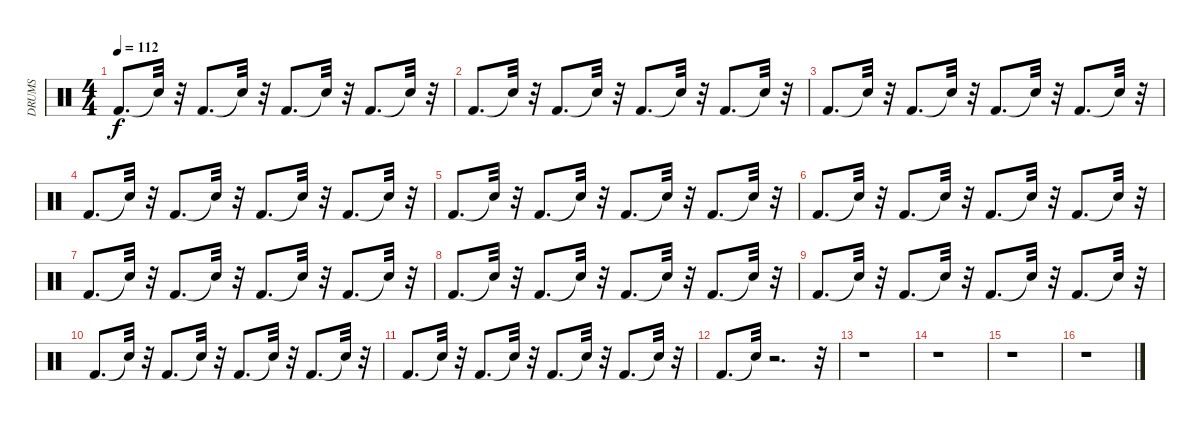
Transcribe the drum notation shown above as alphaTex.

\track ("DRUMS" "DRUMS") {instrument percussion}
\staff {score}
\articulation defaults
\ts (4 4)
\tempo 112
\clef neutral
\ks c "Kick (hit) 2".8{d dy f} "Snare (hit)"{t}.32
r.32 "Kick (hit) 2".8{d} "Snare (hit)"{t}.32 r.32 "Kick (hit) 2".8{d} "Snare (hit)"{t}.32 r.32 "Kick (hit) 2".8{d} "Snare (hit)"{t}.32 r.32 |
"Kick (hit) 2".8{d} "Snare (hit)"{t}.32 r.32 "Kick (hit) 2".8{d} "Snare (hit)"{t}.32 r.32 "Kick (hit) 2".8{d} "Snare (hit)"{t}.32 r.32 "Kick (hit) 2".8{d} "Snare (hit)"{t}.32 r.32 |
"Kick (hit) 2".8{d} "Snare (hit)"{t}.32 r.32 "Kick (hit) 2".8{d} "Snare (hit)"{t}.32 r.32 "Kick (hit) 2".8{d} "Snare (hit)"{t}.32 r.32 "Kick (hit) 2".8{d} "Snare (hit)"{t}.32 r.32 |
"Kick (hit) 2".8{d} "Snare (hit)"{t}.32 r.32 "Kick (hit) 2".8{d} "Snare (hit)"{t}.32 r.32 "Kick (hit) 2".8{d} "Snare (hit)"{t}.32 r.32 "Kick (hit) 2".8{d} "Snare (hit)"{t}.32 r.32 |
"Kick (hit) 2".8{d} "Snare (hit)"{t}.32 r.32 "Kick (hit) 2".8{d} "Snare (hit)"{t}.32 r.32 "Kick (hit) 2".8{d} "Snare (hit)"{t}.32 r.32 "Kick (hit) 2".8{d} "Snare (hit)"{t}.32 r.32 |
"Kick (hit) 2".8{d} "Snare (hit)"{t}.32 r.32 "Kick (hit) 2".8{d} "Snare (hit)"{t}.32 r.32 "Kick (hit) 2".8{d} "Snare (hit)"{t}.32 r.32 "Kick (hit) 2".8{d} "Snare (hit)"{t}.32 r.32 |
"Kick (hit) 2".8{d} "Snare (hit)"{t}.32 r.32 "Kick (hit) 2".8{d} "Snare (hit)"{t}.32 r.32 "Kick (hit) 2".8{d} "Snare (hit)"{t}.32 r.32 "Kick (hit) 2".8{d} "Snare (hit)"{t}.32 r.32 |
"Kick (hit) 2".8{d} "Snare (hit)"{t}.32 r.32 "Kick (hit) 2".8{d} "Snare (hit)"{t}.32 r.32 "Kick (hit) 2".8{d} "Snare (hit)"{t}.32 r.32 "Kick (hit) 2".8{d} "Snare (hit)"{t}.32 r.32 |
"Kick (hit) 2".8{d} "Snare (hit)"{t}.32 r.32 "Kick (hit) 2".8{d} "Snare (hit)"{t}.32 r.32 "Kick (hit) 2".8{d} "Snare (hit)"{t}.32 r.32 "Kick (hit) 2".8{d} "Snare (hit)"{t}.32 r.32 |
"Kick (hit) 2".8{d} "Snare (hit)"{t}.32 r.32 "Kick (hit) 2".8{d} "Snare (hit)"{t}.32 r.32 "Kick (hit) 2".8{d} "Snare (hit)"{t}.32 r.32 "Kick (hit) 2".8{d} "Snare (hit)"{t}.32 r.32 |
"Kick (hit) 2".8{d} "Snare (hit)"{t}.32 r.32 "Kick (hit) 2".8{d} "Snare (hit)"{t}.32 r.32 "Kick (hit) 2".8{d} "Snare (hit)"{t}.32 r.32 "Kick (hit) 2".8{d} "Snare (hit)"{t}.32 r.32 |
"Kick (hit) 2".8{d} "Snare (hit)"{t}.32 r.2{d} r.32 |
r.1 |
r.1 |
r.1 |
r.1
